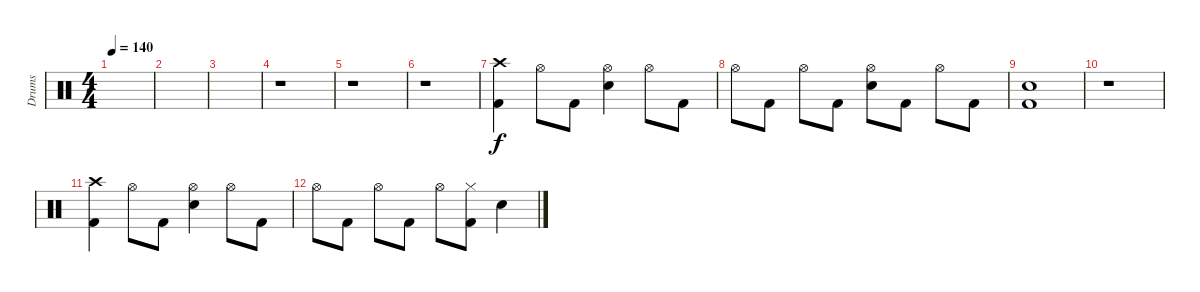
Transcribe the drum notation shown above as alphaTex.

\track ("Drums" "Drums") {instrument percussion}
\staff {score}
\articulation defaults
\ts (4 4)
\tempo 140
\clef neutral
\ks c
|
|
|
r.1 |
r.1 |
r.1 |
("Crash high (hit)" "Kick (hit) 2").4 "Hi-Hat (open)".8 "Kick (hit) 2".8 ("Hi-Hat (open)" "Electric Snare (hit)").4 "Hi-Hat (open)".8 "Kick (hit) 2".8 |
"Hi-Hat (open)".8 "Kick (hit) 2".8 "Hi-Hat (open)".8 "Kick (hit) 2".8 ("Hi-Hat (open)" "Electric Snare (hit)").8 "Kick (hit) 2".8 "Hi-Hat (open)".8 "Kick (hit) 2".8 |
("Electric Snare (hit)" "Kick (hit) 2").1 |
r.1 |
("Crash high (hit)" "Kick (hit) 2").4 "Hi-Hat (open)".8 "Kick (hit) 2".8 ("Hi-Hat (open)" "Electric Snare (hit)").4 "Hi-Hat (open)".8 "Kick (hit) 2".8 |
"Hi-Hat (open)".8 "Kick (hit) 2".8 "Hi-Hat (open)".8 "Kick (hit) 2".8 "Hi-Hat (open)".8 ("Hi-Hat (closed)" "Kick (hit) 2").8 "Electric Snare (hit)".4
